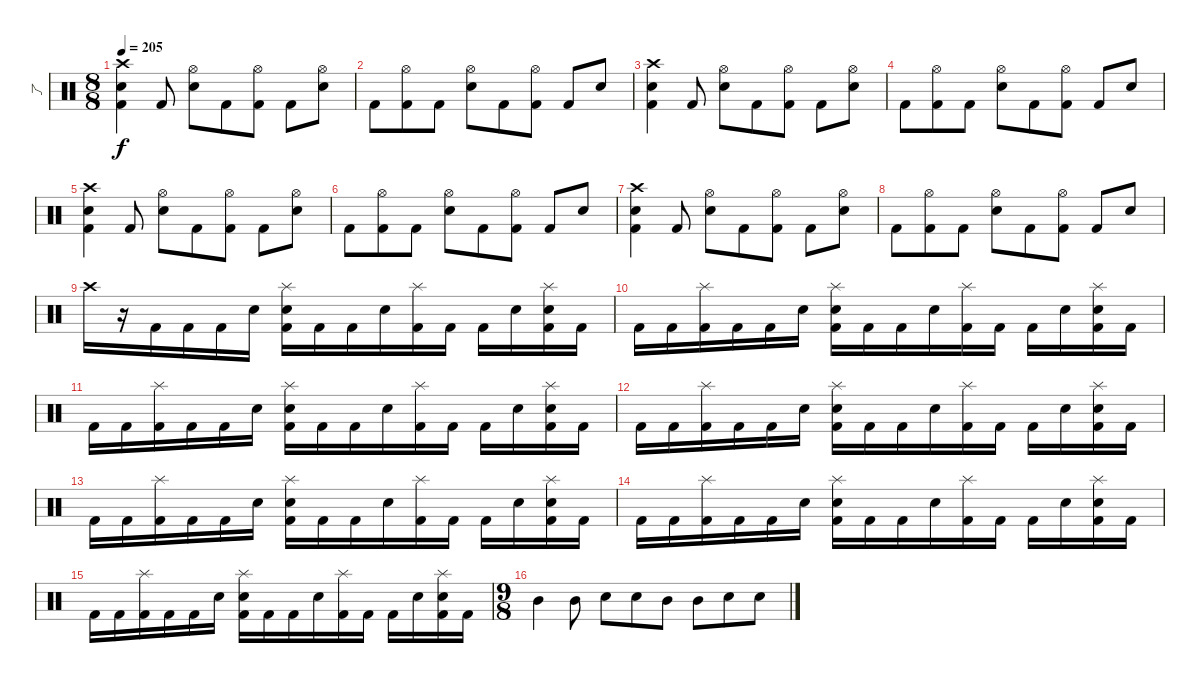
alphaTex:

\track ("了" "了") {instrument percussion}
\staff {score}
\articulation defaults
\ts (8 8)
\tempo 205
\clef neutral
\ks c
("Crash high (hit)" "Snare (hit) 2" "Kick (hit) 2").4{dy f} "Kick (hit) 2".8 ("Hi-Hat (open)" "Electric Snare (hit)").8 "Kick (hit) 2".8 ("Hi-Hat (open)" "Kick (hit) 2").8 "Kick (hit) 2".8 ("Hi-Hat (open)" "Electric Snare (hit)").8 |
"Kick (hit) 2".8 ("Hi-Hat (open)" "Kick (hit) 2").8 "Kick (hit) 2".8 ("Hi-Hat (open)" "Electric Snare (hit)").8 "Kick (hit) 2".8 ("Hi-Hat (open)" "Kick (hit) 2").8 "Kick (hit) 2".8 "Electric Snare (hit)".8 |
("Crash high (hit)" "Snare (hit) 2" "Kick (hit) 2").4 "Kick (hit) 2".8 ("Hi-Hat (open)" "Electric Snare (hit)").8 "Kick (hit) 2".8 ("Hi-Hat (open)" "Kick (hit) 2").8 "Kick (hit) 2".8 ("Hi-Hat (open)" "Electric Snare (hit)").8 |
"Kick (hit) 2".8 ("Hi-Hat (open)" "Kick (hit) 2").8 "Kick (hit) 2".8 ("Hi-Hat (open)" "Electric Snare (hit)").8 "Kick (hit) 2".8 ("Hi-Hat (open)" "Kick (hit) 2").8 "Kick (hit) 2".8 "Electric Snare (hit)".8 |
("Crash high (hit)" "Snare (hit) 2" "Kick (hit) 2").4 "Kick (hit) 2".8 ("Hi-Hat (open)" "Electric Snare (hit)").8 "Kick (hit) 2".8 ("Hi-Hat (open)" "Kick (hit) 2").8 "Kick (hit) 2".8 ("Hi-Hat (open)" "Electric Snare (hit)").8 |
"Kick (hit) 2".8 ("Hi-Hat (open)" "Kick (hit) 2").8 "Kick (hit) 2".8 ("Hi-Hat (open)" "Electric Snare (hit)").8 "Kick (hit) 2".8 ("Hi-Hat (open)" "Kick (hit) 2").8 "Kick (hit) 2".8 "Electric Snare (hit)".8 |
("Crash high (hit)" "Snare (hit) 2" "Kick (hit) 2").4 "Kick (hit) 2".8 ("Hi-Hat (open)" "Electric Snare (hit)").8 "Kick (hit) 2".8 ("Hi-Hat (open)" "Kick (hit) 2").8 "Kick (hit) 2".8 ("Hi-Hat (open)" "Electric Snare (hit)").8 |
"Kick (hit) 2".8 ("Hi-Hat (open)" "Kick (hit) 2").8 "Kick (hit) 2".8 ("Hi-Hat (open)" "Electric Snare (hit)").8 "Kick (hit) 2".8 ("Hi-Hat (open)" "Kick (hit) 2").8 "Kick (hit) 2".8 "Electric Snare (hit)".8 |
"Crash high (hit)".16 r.16 "Kick (hit) 2".16 "Kick (hit) 2".16 "Kick (hit) 2".16 "Snare (hit)".16 ("Splash (hit)" "Electric Snare (hit)" "Kick (hit) 2").16 "Kick (hit) 2".16 "Kick (hit) 2".16 "Snare (hit)".16 ("Splash (hit)" "Kick (hit) 2").16 "Kick (hit) 2".16 "Kick (hit) 2".16 "Snare (hit)".16 ("Splash (hit)" "Electric Snare (hit)" "Kick (hit) 2").16 "Kick (hit) 2".16 |
"Kick (hit) 2".16 "Kick (hit) 2".16 ("Splash (hit)" "Kick (hit) 2").16 "Kick (hit) 2".16 "Kick (hit) 2".16 "Snare (hit)".16 ("Splash (hit)" "Electric Snare (hit)" "Kick (hit) 2").16 "Kick (hit) 2".16 "Kick (hit) 2".16 "Snare (hit)".16 ("Splash (hit)" "Kick (hit) 2").16 "Kick (hit) 2".16 "Kick (hit) 2".16 "Snare (hit)".16 ("Splash (hit)" "Electric Snare (hit)" "Kick (hit) 2").16 "Kick (hit) 2".16 |
"Kick (hit) 2".16 "Kick (hit) 2".16 ("Splash (hit)" "Kick (hit) 2").16 "Kick (hit) 2".16 "Kick (hit) 2".16 "Snare (hit)".16 ("Splash (hit)" "Electric Snare (hit)" "Kick (hit) 2").16 "Kick (hit) 2".16 "Kick (hit) 2".16 "Snare (hit)".16 ("Splash (hit)" "Kick (hit) 2").16 "Kick (hit) 2".16 "Kick (hit) 2".16 "Snare (hit)".16 ("Splash (hit)" "Electric Snare (hit)" "Kick (hit) 2").16 "Kick (hit) 2".16 |
"Kick (hit) 2".16 "Kick (hit) 2".16 ("Splash (hit)" "Kick (hit) 2").16 "Kick (hit) 2".16 "Kick (hit) 2".16 "Snare (hit)".16 ("Splash (hit)" "Electric Snare (hit)" "Kick (hit) 2").16 "Kick (hit) 2".16 "Kick (hit) 2".16 "Snare (hit)".16 ("Splash (hit)" "Kick (hit) 2").16 "Kick (hit) 2".16 "Kick (hit) 2".16 "Snare (hit)".16 ("Splash (hit)" "Electric Snare (hit)" "Kick (hit) 2").16 "Kick (hit) 2".16 |
"Kick (hit) 2".16 "Kick (hit) 2".16 ("Splash (hit)" "Kick (hit) 2").16 "Kick (hit) 2".16 "Kick (hit) 2".16 "Snare (hit)".16 ("Splash (hit)" "Electric Snare (hit)" "Kick (hit) 2").16 "Kick (hit) 2".16 "Kick (hit) 2".16 "Snare (hit)".16 ("Splash (hit)" "Kick (hit) 2").16 "Kick (hit) 2".16 "Kick (hit) 2".16 "Snare (hit)".16 ("Splash (hit)" "Electric Snare (hit)" "Kick (hit) 2").16 "Kick (hit) 2".16 |
"Kick (hit) 2".16 "Kick (hit) 2".16 ("Splash (hit)" "Kick (hit) 2").16 "Kick (hit) 2".16 "Kick (hit) 2".16 "Snare (hit)".16 ("Splash (hit)" "Electric Snare (hit)" "Kick (hit) 2").16 "Kick (hit) 2".16 "Kick (hit) 2".16 "Snare (hit)".16 ("Splash (hit)" "Kick (hit) 2").16 "Kick (hit) 2".16 "Kick (hit) 2".16 "Snare (hit)".16 ("Splash (hit)" "Electric Snare (hit)" "Kick (hit) 2").16 "Kick (hit) 2".16 |
"Kick (hit) 2".16 "Kick (hit) 2".16 ("Splash (hit)" "Kick (hit) 2").16 "Kick (hit) 2".16 "Kick (hit) 2".16 "Snare (hit)".16 ("Splash (hit)" "Electric Snare (hit)" "Kick (hit) 2").16 "Kick (hit) 2".16 "Kick (hit) 2".16 "Snare (hit)".16 ("Splash (hit)" "Kick (hit) 2").16 "Kick (hit) 2".16 "Kick (hit) 2".16 "Snare (hit)".16 ("Splash (hit)" "Electric Snare (hit)" "Kick (hit) 2").16 "Kick (hit) 2".16 |
\ts (9 8)
"Mid Tom (hit)".4 "Mid Tom (hit)".8 "Electric Snare (hit)".8 "Electric Snare (hit)".8 "Mid Tom (hit)".8 "Mid Tom (hit)".8 "Electric Snare (hit)".8 "Electric Snare (hit)".8
